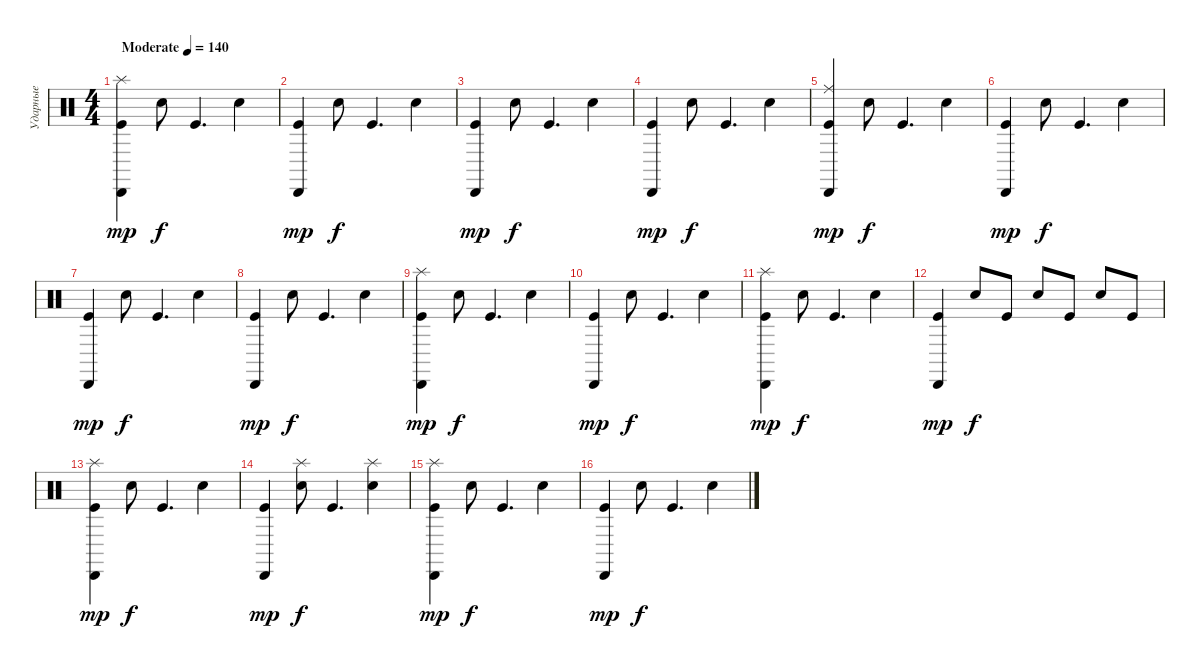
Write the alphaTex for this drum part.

\track ("Ударные" "Ударные") {instrument percussion}
\staff {score}
\articulation defaults
\ts (4 4)
\tempo (140 "Moderate")
\clef neutral
\ks c
("Splash (hit)" "Cabasa (hit)" "Kick (hit)").4{dy mp} "Electric Snare (hit)".8{dy f} "Kick (hit)".4{d} "Electric Snare (hit)".4 |
("Cabasa (hit)" "Kick (hit)").4{dy mp} "Electric Snare (hit)".8{dy f} "Kick (hit)".4{d} "Electric Snare (hit)".4 |
("Cabasa (hit)" "Kick (hit)").4{dy mp} "Electric Snare (hit)".8{dy f} "Kick (hit)".4{d} "Electric Snare (hit)".4 |
("Cabasa (hit)" "Kick (hit)").4{dy mp} "Electric Snare (hit)".8{dy f} "Kick (hit)".4{d} "Electric Snare (hit)".4 |
("Ride (middle)" "Cabasa (hit)" "Kick (hit)").4{dy mp} "Electric Snare (hit)".8{dy f} "Kick (hit)".4{d} "Electric Snare (hit)".4 |
("Cabasa (hit)" "Kick (hit)").4{dy mp} "Electric Snare (hit)".8{dy f} "Kick (hit)".4{d} "Electric Snare (hit)".4 |
("Cabasa (hit)" "Kick (hit)").4{dy mp} "Electric Snare (hit)".8{dy f} "Kick (hit)".4{d} "Electric Snare (hit)".4 |
("Cabasa (hit)" "Kick (hit)").4{dy mp} "Electric Snare (hit)".8{dy f} "Kick (hit)".4{d} "Electric Snare (hit)".4 |
("Splash (hit)" "Cabasa (hit)" "Kick (hit)").4{dy mp} "Electric Snare (hit)".8{dy f} "Kick (hit)".4{d} "Electric Snare (hit)".4 |
("Cabasa (hit)" "Kick (hit)").4{dy mp} "Electric Snare (hit)".8{dy f} "Kick (hit)".4{d} "Electric Snare (hit)".4 |
("Splash (hit)" "Cabasa (hit)" "Kick (hit)").4{dy mp} "Electric Snare (hit)".8{dy f} "Kick (hit)".4{d} "Electric Snare (hit)".4 |
("Cabasa (hit)" "Kick (hit)").4{dy mp} "Electric Snare (hit)".8{dy f} "Kick (hit)".8 "Electric Snare (hit)".8 "Kick (hit)".8 "Electric Snare (hit)".8 "Kick (hit)".8 |
("Splash (hit)" "Cabasa (hit)" "Kick (hit)").4{dy mp} "Electric Snare (hit)".8{dy f} "Kick (hit)".4{d} "Electric Snare (hit)".4 |
("Cabasa (hit)" "Kick (hit)").4{dy mp} ("Splash (hit)" "Electric Snare (hit)").8{dy f} "Kick (hit)".4{d} ("Splash (hit)" "Electric Snare (hit)").4 |
("Splash (hit)" "Cabasa (hit)" "Kick (hit)").4{dy mp} "Electric Snare (hit)".8{dy f} "Kick (hit)".4{d} "Electric Snare (hit)".4 |
("Cabasa (hit)" "Kick (hit)").4{dy mp} "Electric Snare (hit)".8{dy f} "Kick (hit)".4{d} "Electric Snare (hit)".4
